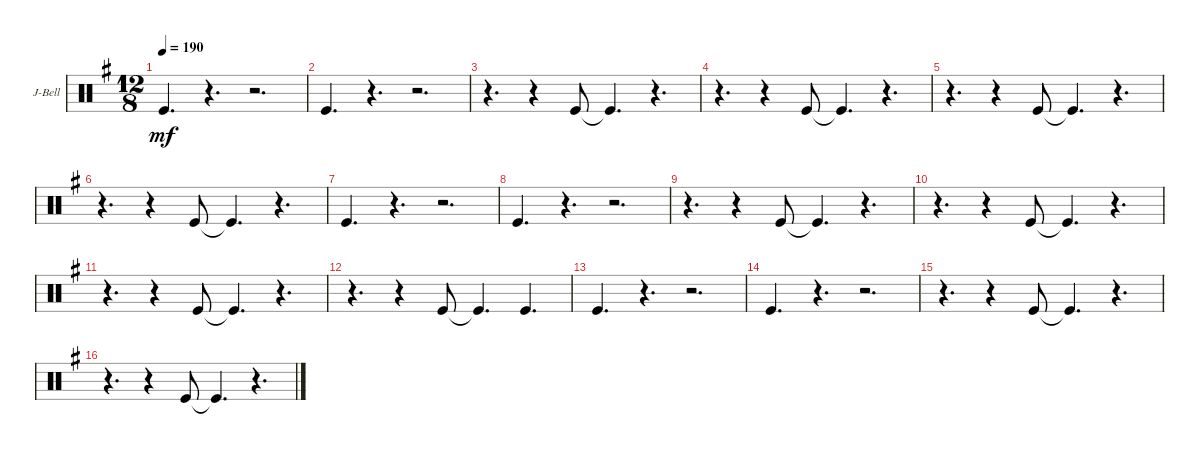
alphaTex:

\defaultSystemsLayout 4
\bracketExtendMode groupsimilarinstruments
\firstSystemTrackNameOrientation horizontal
\otherSystemsTrackNameOrientation horizontal
\track ("Jingle Bell" "J-Bell") {instrument percussion}
\staff {score}
\articulation defaults
\ts (12 8)
\tempo 190
\clef neutral
\ks g "Kick (hit)".4{d dy mf}
r.4{d} r.2{d} |
"Kick (hit)".4{d} r.4{d} r.2{d} |
r.4{d} r.4 "Kick (hit)".8 "Kick (hit)"{t}.4{d} r.4{d} |
r.4{d} r.4 "Kick (hit)".8 "Kick (hit)"{t}.4{d} r.4{d} |
r.4{d} r.4 "Kick (hit)".8 "Kick (hit)"{t}.4{d} r.4{d} |
r.4{d} r.4 "Kick (hit)".8 "Kick (hit)"{t}.4{d} r.4{d} |
"Kick (hit)".4{d} r.4{d} r.2{d} |
"Kick (hit)".4{d} r.4{d} r.2{d} |
r.4{d} r.4 "Kick (hit)".8 "Kick (hit)"{t}.4{d} r.4{d} |
r.4{d} r.4 "Kick (hit)".8 "Kick (hit)"{t}.4{d} r.4{d} |
r.4{d} r.4 "Kick (hit)".8 "Kick (hit)"{t}.4{d} r.4{d} |
r.4{d} r.4 "Kick (hit)".8 "Kick (hit)"{t}.4{d} "Kick (hit)".4{d} |
"Kick (hit)".4{d} r.4{d} r.2{d} |
"Kick (hit)".4{d} r.4{d} r.2{d} |
r.4{d} r.4 "Kick (hit)".8 "Kick (hit)"{t}.4{d} r.4{d} |
r.4{d} r.4 "Kick (hit)".8 "Kick (hit)"{t}.4{d} r.4{d}
